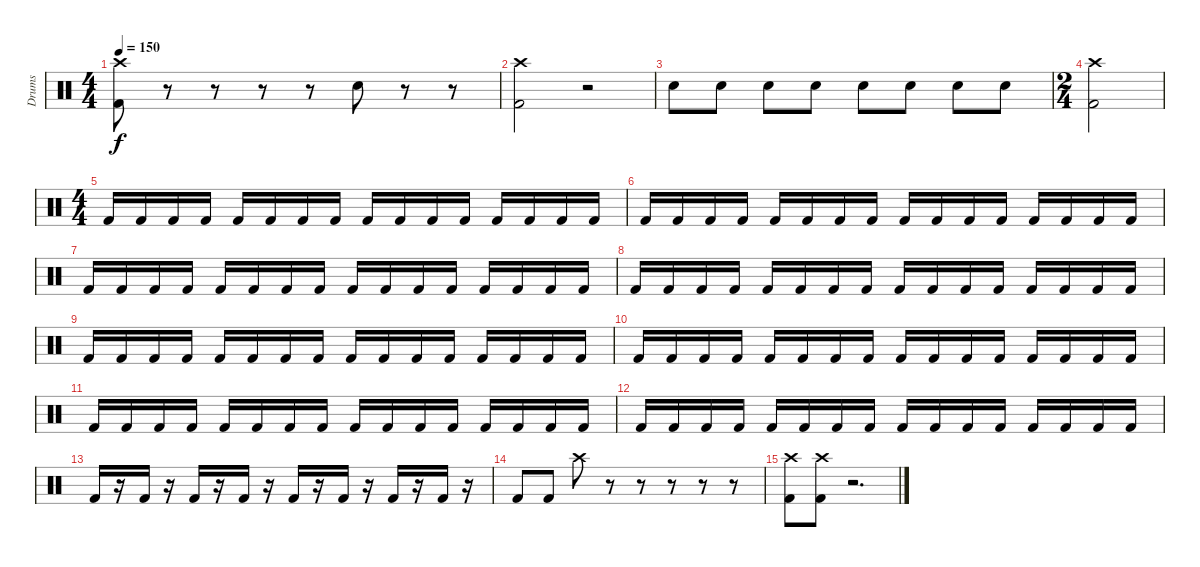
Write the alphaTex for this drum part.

\track ("Drums" "Drums") {instrument percussion}
\staff {score}
\articulation defaults
\ts (4 4)
\tempo 150
\clef neutral
\ks c
("Crash high (hit)" "Kick (hit) 2").8{dy f} r.8 r.8 r.8 r.8 "Snare (hit) 2".8 r.8 r.8 |
("Crash high (hit)" "Kick (hit) 2").2 r.2 |
"Snare (hit) 2".8 "Snare (hit) 2".8 "Snare (hit) 2".8 "Snare (hit) 2".8 "Snare (hit) 2".8 "Snare (hit) 2".8 "Snare (hit) 2".8 "Snare (hit) 2".8 |
\ts (2 4)
("Kick (hit) 2" "Crash high (hit)").2 |
\ts (4 4)
"Kick (hit) 2".16 "Kick (hit) 2".16 "Kick (hit) 2".16 "Kick (hit) 2".16 "Kick (hit) 2".16 "Kick (hit) 2".16 "Kick (hit) 2".16 "Kick (hit) 2".16 "Kick (hit) 2".16 "Kick (hit) 2".16 "Kick (hit) 2".16 "Kick (hit) 2".16 "Kick (hit) 2".16 "Kick (hit) 2".16 "Kick (hit) 2".16 "Kick (hit) 2".16 |
"Kick (hit) 2".16 "Kick (hit) 2".16 "Kick (hit) 2".16 "Kick (hit) 2".16 "Kick (hit) 2".16 "Kick (hit) 2".16 "Kick (hit) 2".16 "Kick (hit) 2".16 "Kick (hit) 2".16 "Kick (hit) 2".16 "Kick (hit) 2".16 "Kick (hit) 2".16 "Kick (hit) 2".16 "Kick (hit) 2".16 "Kick (hit) 2".16 "Kick (hit) 2".16 |
"Kick (hit) 2".16 "Kick (hit) 2".16 "Kick (hit) 2".16 "Kick (hit) 2".16 "Kick (hit) 2".16 "Kick (hit) 2".16 "Kick (hit) 2".16 "Kick (hit) 2".16 "Kick (hit) 2".16 "Kick (hit) 2".16 "Kick (hit) 2".16 "Kick (hit) 2".16 "Kick (hit) 2".16 "Kick (hit) 2".16 "Kick (hit) 2".16 "Kick (hit) 2".16 |
"Kick (hit) 2".16 "Kick (hit) 2".16 "Kick (hit) 2".16 "Kick (hit) 2".16 "Kick (hit) 2".16 "Kick (hit) 2".16 "Kick (hit) 2".16 "Kick (hit) 2".16 "Kick (hit) 2".16 "Kick (hit) 2".16 "Kick (hit) 2".16 "Kick (hit) 2".16 "Kick (hit) 2".16 "Kick (hit) 2".16 "Kick (hit) 2".16 "Kick (hit) 2".16 |
"Kick (hit) 2".16 "Kick (hit) 2".16 "Kick (hit) 2".16 "Kick (hit) 2".16 "Kick (hit) 2".16 "Kick (hit) 2".16 "Kick (hit) 2".16 "Kick (hit) 2".16 "Kick (hit) 2".16 "Kick (hit) 2".16 "Kick (hit) 2".16 "Kick (hit) 2".16 "Kick (hit) 2".16 "Kick (hit) 2".16 "Kick (hit) 2".16 "Kick (hit) 2".16 |
"Kick (hit) 2".16 "Kick (hit) 2".16 "Kick (hit) 2".16 "Kick (hit) 2".16 "Kick (hit) 2".16 "Kick (hit) 2".16 "Kick (hit) 2".16 "Kick (hit) 2".16 "Kick (hit) 2".16 "Kick (hit) 2".16 "Kick (hit) 2".16 "Kick (hit) 2".16 "Kick (hit) 2".16 "Kick (hit) 2".16 "Kick (hit) 2".16 "Kick (hit) 2".16 |
"Kick (hit) 2".16 "Kick (hit) 2".16 "Kick (hit) 2".16 "Kick (hit) 2".16 "Kick (hit) 2".16 "Kick (hit) 2".16 "Kick (hit) 2".16 "Kick (hit) 2".16 "Kick (hit) 2".16 "Kick (hit) 2".16 "Kick (hit) 2".16 "Kick (hit) 2".16 "Kick (hit) 2".16 "Kick (hit) 2".16 "Kick (hit) 2".16 "Kick (hit) 2".16 |
"Kick (hit) 2".16 "Kick (hit) 2".16 "Kick (hit) 2".16 "Kick (hit) 2".16 "Kick (hit) 2".16 "Kick (hit) 2".16 "Kick (hit) 2".16 "Kick (hit) 2".16 "Kick (hit) 2".16 "Kick (hit) 2".16 "Kick (hit) 2".16 "Kick (hit) 2".16 "Kick (hit) 2".16 "Kick (hit) 2".16 "Kick (hit) 2".16 "Kick (hit) 2".16 |
"Kick (hit) 2".16 r.16 "Kick (hit) 2".16 r.16 "Kick (hit) 2".16 r.16 "Kick (hit) 2".16 r.16 "Kick (hit) 2".16 r.16 "Kick (hit) 2".16 r.16 "Kick (hit) 2".16 r.16 "Kick (hit) 2".16 r.16 |
"Kick (hit) 2".8 "Kick (hit) 2".8 "Crash high (hit)".8 r.8 r.8 r.8 r.8 r.8 |
("Crash high (hit)" "Kick (hit) 2").8 ("Crash high (hit)" "Kick (hit) 2").8 r.2{d}
